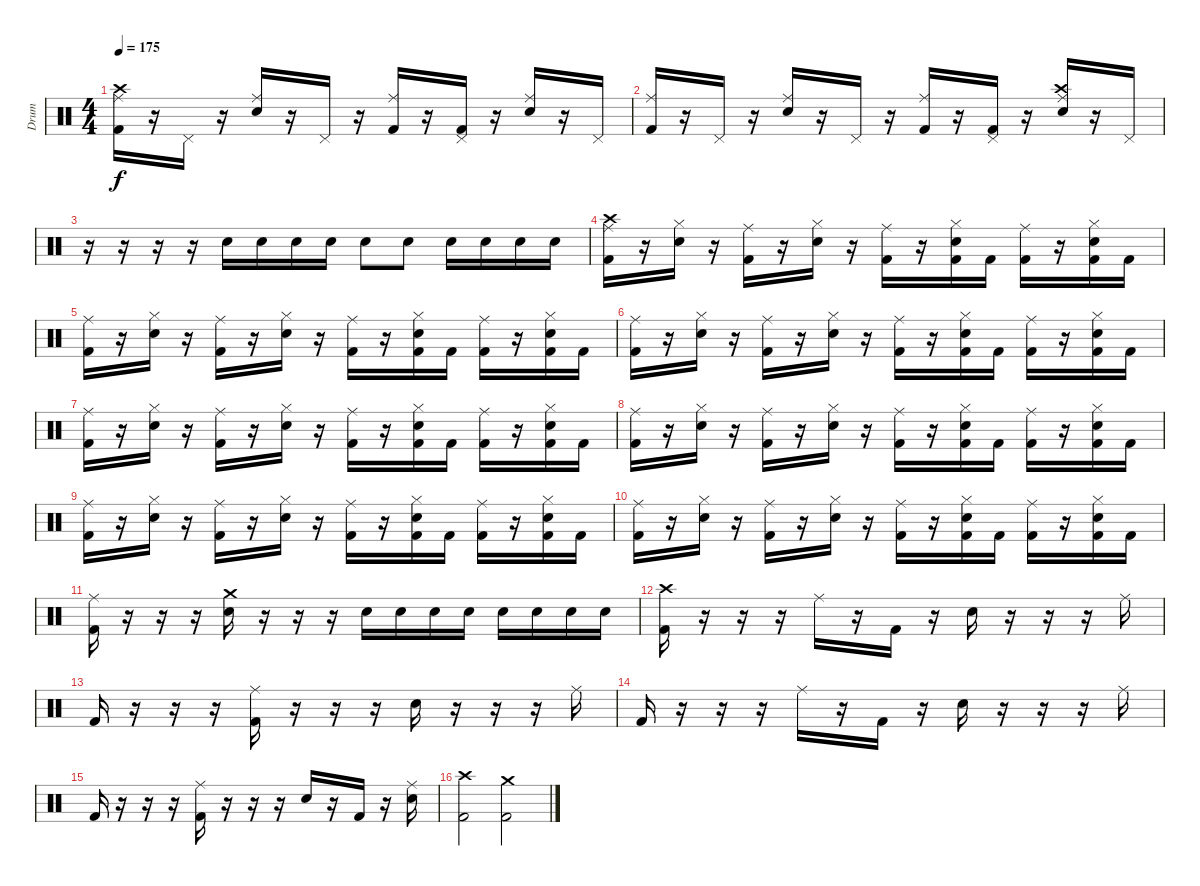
\track ("Drum" "Drum") {instrument percussion}
\staff {score}
\articulation defaults
\ts (4 4)
\tempo 175
\clef neutral
\ks c
("Ride (middle)" "Kick (hit) 2" "Crash high (hit)").16{dy f} r.16 "Pedal Hi-Hat (hit)".16 r.16 ("Ride (middle)" "Electric Snare (hit)").16 r.16 "Pedal Hi-Hat (hit)".16 r.16 ("Ride (middle)" "Kick (hit) 2").16 r.16 ("Pedal Hi-Hat (hit)" "Kick (hit) 2").16 r.16 ("Ride (middle)" "Electric Snare (hit)").16 r.16 "Pedal Hi-Hat (hit)".16 |
("Ride (middle)" "Kick (hit) 2").16 r.16 "Pedal Hi-Hat (hit)".16 r.16 ("Ride (middle)" "Electric Snare (hit)").16 r.16 "Pedal Hi-Hat (hit)".16 r.16 ("Ride (middle)" "Kick (hit) 2").16 r.16 ("Pedal Hi-Hat (hit)" "Kick (hit) 2").16 r.16 ("Ride (middle)" "Electric Snare (hit)" "Crash high (hit)").16 r.16 "Pedal Hi-Hat (hit)".16 |
r.16 r.16 r.16 r.16 "Electric Snare (hit)".16 "Electric Snare (hit)".16 "Electric Snare (hit)".16 "Electric Snare (hit)".16 "Electric Snare (hit)".8 "Electric Snare (hit)".8 "Electric Snare (hit)".16 "Electric Snare (hit)".16 "Electric Snare (hit)".16 "Electric Snare (hit)".16 |
("Ride (middle)" "Kick (hit) 2" "Crash high (hit)").16 r.16 ("Hi-Hat (closed)" "Electric Snare (hit)").16 r.16 ("Ride (middle)" "Kick (hit) 2").16 r.16 ("Hi-Hat (closed)" "Electric Snare (hit)").16 r.16 ("Ride (middle)" "Kick (hit) 2").16 r.16 ("Hi-Hat (closed)" "Electric Snare (hit)" "Kick (hit) 2").16 "Kick (hit) 2".16 ("Ride (middle)" "Kick (hit) 2").16 r.16 ("Hi-Hat (closed)" "Electric Snare (hit)" "Kick (hit) 2").16 "Kick (hit) 2".16 |
("Ride (middle)" "Kick (hit) 2").16 r.16 ("Hi-Hat (closed)" "Electric Snare (hit)").16 r.16 ("Ride (middle)" "Kick (hit) 2").16 r.16 ("Hi-Hat (closed)" "Electric Snare (hit)").16 r.16 ("Ride (middle)" "Kick (hit) 2").16 r.16 ("Hi-Hat (closed)" "Electric Snare (hit)" "Kick (hit) 2").16 "Kick (hit) 2".16 ("Ride (middle)" "Kick (hit) 2").16 r.16 ("Hi-Hat (closed)" "Electric Snare (hit)" "Kick (hit) 2").16 "Kick (hit) 2".16 |
("Ride (middle)" "Kick (hit) 2").16 r.16 ("Hi-Hat (closed)" "Electric Snare (hit)").16 r.16 ("Ride (middle)" "Kick (hit) 2").16 r.16 ("Hi-Hat (closed)" "Electric Snare (hit)").16 r.16 ("Ride (middle)" "Kick (hit) 2").16 r.16 ("Hi-Hat (closed)" "Electric Snare (hit)" "Kick (hit) 2").16 "Kick (hit) 2".16 ("Ride (middle)" "Kick (hit) 2").16 r.16 ("Hi-Hat (closed)" "Electric Snare (hit)" "Kick (hit) 2").16 "Kick (hit) 2".16 |
("Ride (middle)" "Kick (hit) 2").16 r.16 ("Hi-Hat (closed)" "Electric Snare (hit)").16 r.16 ("Ride (middle)" "Kick (hit) 2").16 r.16 ("Hi-Hat (closed)" "Electric Snare (hit)").16 r.16 ("Ride (middle)" "Kick (hit) 2").16 r.16 ("Hi-Hat (closed)" "Electric Snare (hit)" "Kick (hit) 2").16 "Kick (hit) 2".16 ("Ride (middle)" "Kick (hit) 2").16 r.16 ("Hi-Hat (closed)" "Electric Snare (hit)" "Kick (hit) 2").16 "Kick (hit) 2".16 |
("Ride (middle)" "Kick (hit) 2").16 r.16 ("Hi-Hat (closed)" "Electric Snare (hit)").16 r.16 ("Ride (middle)" "Kick (hit) 2").16 r.16 ("Hi-Hat (closed)" "Electric Snare (hit)").16 r.16 ("Ride (middle)" "Kick (hit) 2").16 r.16 ("Hi-Hat (closed)" "Electric Snare (hit)" "Kick (hit) 2").16 "Kick (hit) 2".16 ("Ride (middle)" "Kick (hit) 2").16 r.16 ("Hi-Hat (closed)" "Electric Snare (hit)" "Kick (hit) 2").16 "Kick (hit) 2".16 |
("Ride (middle)" "Kick (hit) 2").16 r.16 ("Hi-Hat (closed)" "Electric Snare (hit)").16 r.16 ("Ride (middle)" "Kick (hit) 2").16 r.16 ("Hi-Hat (closed)" "Electric Snare (hit)").16 r.16 ("Ride (middle)" "Kick (hit) 2").16 r.16 ("Hi-Hat (closed)" "Electric Snare (hit)" "Kick (hit) 2").16 "Kick (hit) 2".16 ("Ride (middle)" "Kick (hit) 2").16 r.16 ("Hi-Hat (closed)" "Electric Snare (hit)" "Kick (hit) 2").16 "Kick (hit) 2".16 |
("Ride (middle)" "Kick (hit) 2").16 r.16 ("Hi-Hat (closed)" "Electric Snare (hit)").16 r.16 ("Ride (middle)" "Kick (hit) 2").16 r.16 ("Hi-Hat (closed)" "Electric Snare (hit)").16 r.16 ("Ride (middle)" "Kick (hit) 2").16 r.16 ("Hi-Hat (closed)" "Electric Snare (hit)" "Kick (hit) 2").16 "Kick (hit) 2".16 ("Ride (middle)" "Kick (hit) 2").16 r.16 ("Hi-Hat (closed)" "Electric Snare (hit)" "Kick (hit) 2").16 "Kick (hit) 2".16 |
("Ride (middle)" "Kick (hit) 2").16 r.16 r.16 r.16 ("Electric Snare (hit)" "Crash medium (hit)").16 r.16 r.16 r.16 "Electric Snare (hit)".16 "Electric Snare (hit)".16 "Electric Snare (hit)".16 "Electric Snare (hit)".16 "Electric Snare (hit)".16 "Electric Snare (hit)".16 "Electric Snare (hit)".16 "Electric Snare (hit)".16 |
("Kick (hit) 2" "Crash high (hit)").16 r.16 r.16 r.16 "Ride (middle)".16 r.16 "Kick (hit) 2".16 r.16 "Electric Snare (hit)".16 r.16 r.16 r.16 "Ride (middle)".16 |
"Kick (hit) 2".16 r.16 r.16 r.16 ("Ride (middle)" "Kick (hit) 2").16 r.16 r.16 r.16 "Electric Snare (hit)".16 r.16 r.16 r.16 "Ride (middle)".16 |
"Kick (hit) 2".16 r.16 r.16 r.16 "Ride (middle)".16 r.16 "Kick (hit) 2".16 r.16 "Electric Snare (hit)".16 r.16 r.16 r.16 "Ride (middle)".16 |
"Kick (hit) 2".16 r.16 r.16 r.16 ("Ride (middle)" "Kick (hit) 2").16 r.16 r.16 r.16 "Electric Snare (hit)".16 r.16 "Kick (hit) 2".16 r.16 ("Ride (middle)" "Electric Snare (hit)").16 |
("Kick (hit) 2" "Crash high (hit)").2 ("Kick (hit) 2" "Crash medium (hit)").2
